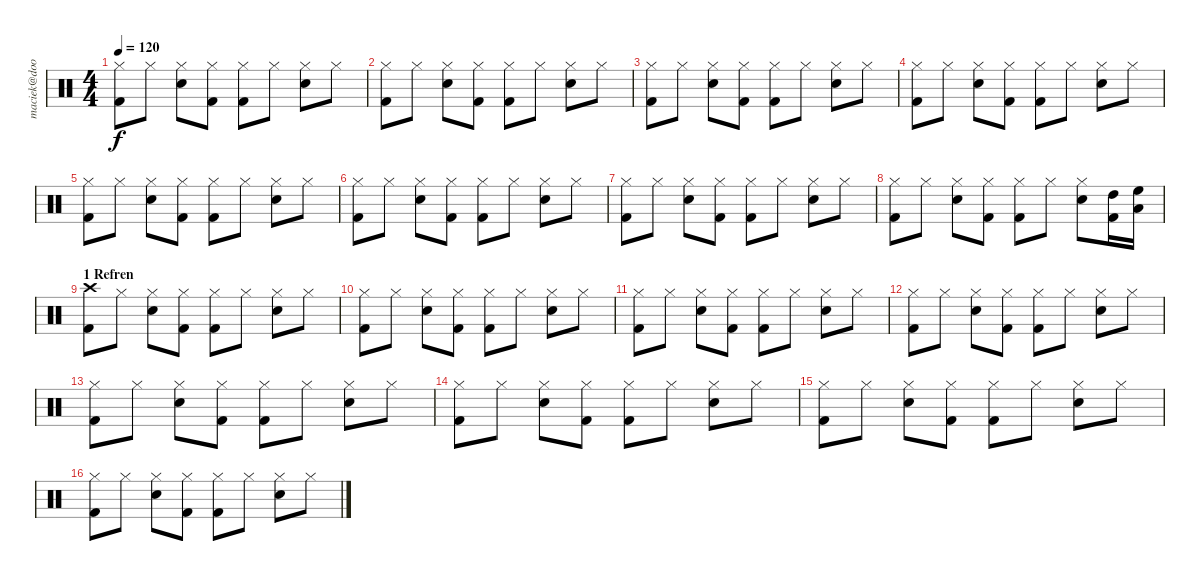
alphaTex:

\track ("maciek@doorpol.com" "maciek@doo") {instrument percussion}
\staff {score}
\articulation defaults
\ts (4 4)
\tempo 120
\clef neutral
\ks c
("Hi-Hat (closed)" "Kick (hit) 2").8{dy f} "Hi-Hat (closed)".8 ("Hi-Hat (closed)" "Snare (hit) 2").8 ("Hi-Hat (closed)" "Kick (hit) 2").8 ("Hi-Hat (closed)" "Kick (hit) 2").8 "Hi-Hat (closed)".8 ("Hi-Hat (closed)" "Snare (hit) 2").8 "Hi-Hat (closed)".8 |
("Hi-Hat (closed)" "Kick (hit) 2").8 "Hi-Hat (closed)".8 ("Hi-Hat (closed)" "Snare (hit) 2").8 ("Hi-Hat (closed)" "Kick (hit) 2").8 ("Hi-Hat (closed)" "Kick (hit) 2").8 "Hi-Hat (closed)".8 ("Hi-Hat (closed)" "Snare (hit) 2").8 "Hi-Hat (closed)".8 |
("Hi-Hat (closed)" "Kick (hit) 2").8 "Hi-Hat (closed)".8 ("Hi-Hat (closed)" "Snare (hit) 2").8 ("Hi-Hat (closed)" "Kick (hit) 2").8 ("Hi-Hat (closed)" "Kick (hit) 2").8 "Hi-Hat (closed)".8 ("Hi-Hat (closed)" "Snare (hit) 2").8 "Hi-Hat (closed)".8 |
("Hi-Hat (closed)" "Kick (hit) 2").8 "Hi-Hat (closed)".8 ("Hi-Hat (closed)" "Snare (hit) 2").8 ("Hi-Hat (closed)" "Kick (hit) 2").8 ("Hi-Hat (closed)" "Kick (hit) 2").8 "Hi-Hat (closed)".8 ("Hi-Hat (closed)" "Snare (hit) 2").8 "Hi-Hat (closed)".8 |
("Hi-Hat (closed)" "Kick (hit) 2").8 "Hi-Hat (closed)".8 ("Hi-Hat (closed)" "Snare (hit) 2").8 ("Hi-Hat (closed)" "Kick (hit) 2").8 ("Hi-Hat (closed)" "Kick (hit) 2").8 "Hi-Hat (closed)".8 ("Hi-Hat (closed)" "Snare (hit) 2").8 "Hi-Hat (closed)".8 |
("Hi-Hat (closed)" "Kick (hit) 2").8 "Hi-Hat (closed)".8 ("Hi-Hat (closed)" "Snare (hit) 2").8 ("Hi-Hat (closed)" "Kick (hit) 2").8 ("Hi-Hat (closed)" "Kick (hit) 2").8 "Hi-Hat (closed)".8 ("Hi-Hat (closed)" "Snare (hit) 2").8 "Hi-Hat (closed)".8 |
("Hi-Hat (closed)" "Kick (hit) 2").8 "Hi-Hat (closed)".8 ("Hi-Hat (closed)" "Snare (hit) 2").8 ("Hi-Hat (closed)" "Kick (hit) 2").8 ("Hi-Hat (closed)" "Kick (hit) 2").8 "Hi-Hat (closed)".8 ("Hi-Hat (closed)" "Snare (hit) 2").8 "Hi-Hat (closed)".8 |
("Hi-Hat (closed)" "Kick (hit) 2").8 "Hi-Hat (closed)".8 ("Hi-Hat (closed)" "Snare (hit) 2").8 ("Hi-Hat (closed)" "Kick (hit) 2").8 ("Hi-Hat (closed)" "Kick (hit) 2").8 "Hi-Hat (closed)".8 ("Hi-Hat (closed)" "Snare (hit) 2").8 ("Kick (hit) 2" "High Tom (hit)").16 ("Low Tom (hit)" "High Floor Tom (hit)").16 |
\section ("" "1 Refren")
("Crash high (hit)" "Kick (hit) 2").8 "Hi-Hat (closed)".8 ("Hi-Hat (closed)" "Snare (hit) 2").8 ("Hi-Hat (closed)" "Kick (hit) 2").8 ("Hi-Hat (closed)" "Kick (hit) 2").8 "Hi-Hat (closed)".8 ("Hi-Hat (closed)" "Snare (hit) 2").8 "Hi-Hat (closed)".8 |
("Hi-Hat (closed)" "Kick (hit) 2").8 "Hi-Hat (closed)".8 ("Hi-Hat (closed)" "Snare (hit) 2").8 ("Hi-Hat (closed)" "Kick (hit) 2").8 ("Hi-Hat (closed)" "Kick (hit) 2").8 "Hi-Hat (closed)".8 ("Hi-Hat (closed)" "Snare (hit) 2").8 "Hi-Hat (closed)".8 |
("Hi-Hat (closed)" "Kick (hit) 2").8 "Hi-Hat (closed)".8 ("Hi-Hat (closed)" "Snare (hit) 2").8 ("Hi-Hat (closed)" "Kick (hit) 2").8 ("Hi-Hat (closed)" "Kick (hit) 2").8 "Hi-Hat (closed)".8 ("Hi-Hat (closed)" "Snare (hit) 2").8 "Hi-Hat (closed)".8 |
("Hi-Hat (closed)" "Kick (hit) 2").8 "Hi-Hat (closed)".8 ("Hi-Hat (closed)" "Snare (hit) 2").8 ("Hi-Hat (closed)" "Kick (hit) 2").8 ("Hi-Hat (closed)" "Kick (hit) 2").8 "Hi-Hat (closed)".8 ("Hi-Hat (closed)" "Snare (hit) 2").8 "Hi-Hat (closed)".8 |
("Hi-Hat (closed)" "Kick (hit) 2").8 "Hi-Hat (closed)".8 ("Hi-Hat (closed)" "Snare (hit) 2").8 ("Hi-Hat (closed)" "Kick (hit) 2").8 ("Hi-Hat (closed)" "Kick (hit) 2").8 "Hi-Hat (closed)".8 ("Hi-Hat (closed)" "Snare (hit) 2").8 "Hi-Hat (closed)".8 |
("Hi-Hat (closed)" "Kick (hit) 2").8 "Hi-Hat (closed)".8 ("Hi-Hat (closed)" "Snare (hit) 2").8 ("Hi-Hat (closed)" "Kick (hit) 2").8 ("Hi-Hat (closed)" "Kick (hit) 2").8 "Hi-Hat (closed)".8 ("Hi-Hat (closed)" "Snare (hit) 2").8 "Hi-Hat (closed)".8 |
("Hi-Hat (closed)" "Kick (hit) 2").8 "Hi-Hat (closed)".8 ("Hi-Hat (closed)" "Snare (hit) 2").8 ("Hi-Hat (closed)" "Kick (hit) 2").8 ("Hi-Hat (closed)" "Kick (hit) 2").8 "Hi-Hat (closed)".8 ("Hi-Hat (closed)" "Snare (hit) 2").8 "Hi-Hat (closed)".8 |
("Hi-Hat (closed)" "Kick (hit) 2").8 "Hi-Hat (closed)".8 ("Hi-Hat (closed)" "Snare (hit) 2").8 ("Hi-Hat (closed)" "Kick (hit) 2").8 ("Hi-Hat (closed)" "Kick (hit) 2").8 "Hi-Hat (closed)".8 ("Hi-Hat (closed)" "Snare (hit) 2").8 "Hi-Hat (closed)".8
